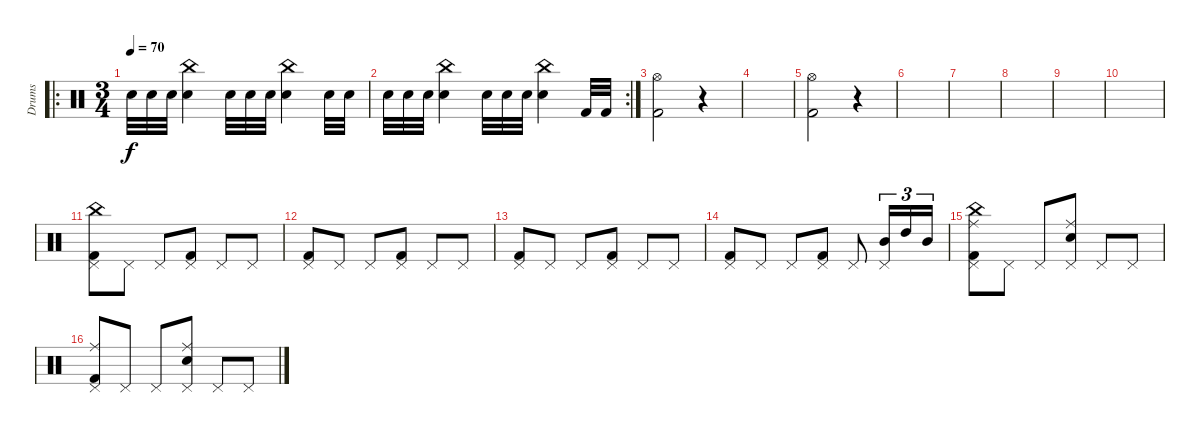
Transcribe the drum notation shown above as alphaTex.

\track ("Drums" "Drums") {instrument percussion}
\staff {score}
\articulation defaults
\ro
\ts (3 4)
\tempo 70
\clef neutral
\ks c "Electric Snare (hit)".32{dy f} "Electric Snare (hit)".32 "Electric Snare (hit)".32
("China (hit)" "Electric Snare (hit)").4 "Electric Snare (hit)".32 "Electric Snare (hit)".32 "Electric Snare (hit)".32 ("China (hit)" "Electric Snare (hit)").4 "Electric Snare (hit)".32 "Electric Snare (hit)".32 |
\rc 2 "Electric Snare (hit)".32 "Electric Snare (hit)".32 "Electric Snare (hit)".32
("China (hit)" "Electric Snare (hit)").4 "Electric Snare (hit)".32 "Electric Snare (hit)".32 "Electric Snare (hit)".32 ("China (hit)" "Electric Snare (hit)").4 "Kick (hit) 2".32 "Kick (hit) 2".32 |
("Hi-Hat (open)" "Kick (hit) 2").2 r.4 |
|
("Hi-Hat (open)" "Kick (hit) 2").2 r.4 |
|
|
|
|
|
("Pedal Hi-Hat (hit)" "Kick (hit) 2" "China (hit)").8 "Pedal Hi-Hat (hit)".8 "Pedal Hi-Hat (hit)".8 ("Pedal Hi-Hat (hit)" "Kick (hit) 2").8 "Pedal Hi-Hat (hit)".8 "Pedal Hi-Hat (hit)".8 |
("Pedal Hi-Hat (hit)" "Kick (hit) 2").8 "Pedal Hi-Hat (hit)".8 "Pedal Hi-Hat (hit)".8 ("Pedal Hi-Hat (hit)" "Kick (hit) 2").8 "Pedal Hi-Hat (hit)".8 "Pedal Hi-Hat (hit)".8 |
("Pedal Hi-Hat (hit)" "Kick (hit) 2").8 "Pedal Hi-Hat (hit)".8 "Pedal Hi-Hat (hit)".8 ("Pedal Hi-Hat (hit)" "Kick (hit) 2").8 "Pedal Hi-Hat (hit)".8 "Pedal Hi-Hat (hit)".8 |
("Pedal Hi-Hat (hit)" "Kick (hit) 2").8 "Pedal Hi-Hat (hit)".8 "Pedal Hi-Hat (hit)".8 ("Pedal Hi-Hat (hit)" "Kick (hit) 2").8 "Pedal Hi-Hat (hit)".8 ("Pedal Hi-Hat (hit)" "Mid Tom (hit)").16{tu (3 2)} "High Tom (hit)".16{tu (3 2)} "Mid Tom (hit)".16{tu (3 2)} |
("Pedal Hi-Hat (hit)" "Kick (hit) 2" "China (hit)" "Ride (middle)").8 "Pedal Hi-Hat (hit)".8 "Pedal Hi-Hat (hit)".8 ("Pedal Hi-Hat (hit)" "Electric Snare (hit)" "Ride (middle)").8 "Pedal Hi-Hat (hit)".8 "Pedal Hi-Hat (hit)".8 |
("Pedal Hi-Hat (hit)" "Kick (hit) 2" "Ride (middle)").8 "Pedal Hi-Hat (hit)".8 "Pedal Hi-Hat (hit)".8 ("Pedal Hi-Hat (hit)" "Electric Snare (hit)" "Ride (middle)").8 "Pedal Hi-Hat (hit)".8 "Pedal Hi-Hat (hit)".8
